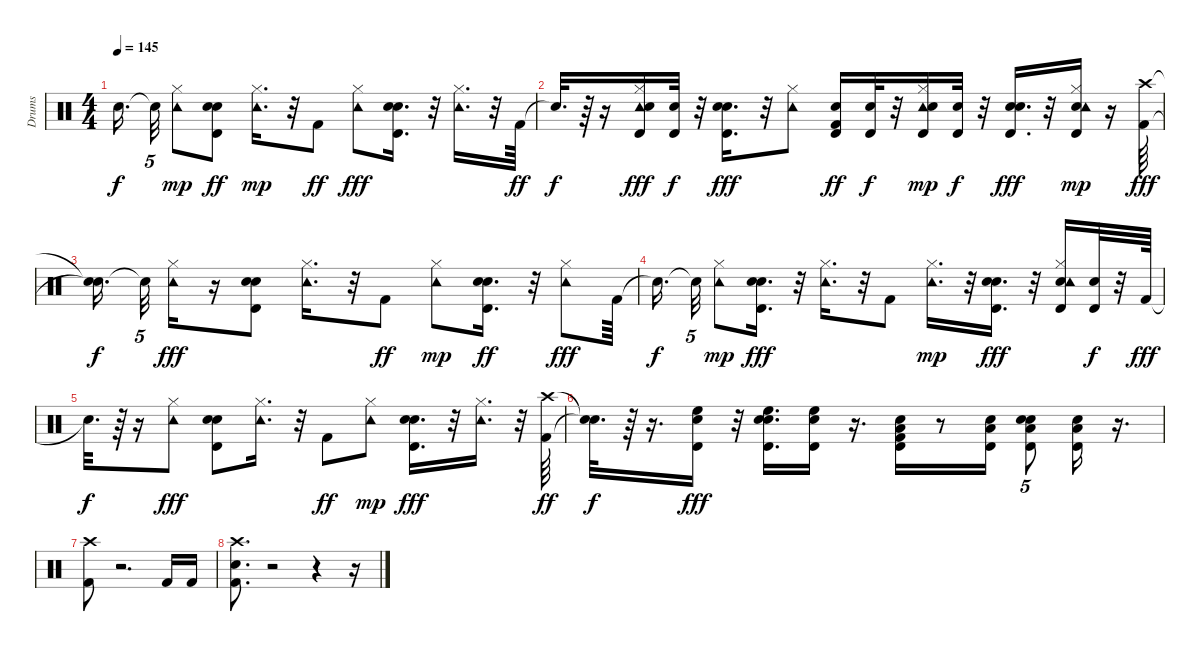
\track ("Drums" "Drums") {instrument percussion}
\staff {score}
\articulation defaults
\ts (4 4)
\tempo 145
\clef neutral
\ks c "Snare (hit)"{t}.16{d dy f} "Snare (hit)"{t}.32{tu (5 4)}
("Hi-Hat (closed)" "Tambourine (hit)").8{dy mp} ("Hand Clap (hit)" "Snare (hit) 2" "Timbale high (hit)").8{dy ff} ("Hi-Hat (closed)" "Tambourine (hit)").16{d dy mp} r.32 "Kick (hit) 2".8{dy ff} ("Tambourine (hit)" "Hi-Hat (closed)").8{dy fff} ("Snare (hit) 2" "Timbale high (hit)" "Hand Clap (hit)").16{d} r.32 ("Tambourine (hit)" "Hi-Hat (closed)").16{d} r.32 "Kick (hit) 2".64{dy ff} |
"Snare (hit)"{t}.32{d dy f} r.64 r.16 ("Tambourine (hit)" "Timbale high (hit)" "Snare (hit) 2" "Hi-Hat (closed)").16{dy fff} ("Snare (hit) 2" "Timbale high (hit)").32{dy f} r.32 ("Snare (hit) 2" "Timbale high (hit)" "Hand Clap (hit)").16{d dy fff} r.32 ("Tambourine (hit)" "Hi-Hat (closed)").8 ("Kick (hit) 2" "Snare (hit) 2" "Timbale high (hit)").16{dy ff} ("Snare (hit) 2" "Timbale high (hit)").32{dy f} r.32 ("Timbale high (hit)" "Hi-Hat (closed)" "Tambourine (hit)" "Snare (hit) 2").16{dy mp} ("Timbale high (hit)" "Snare (hit) 2").32{dy f} r.32 ("Timbale high (hit)" "Snare (hit) 2" "Hand Clap (hit)").16{d dy fff} r.32 ("Timbale high (hit)" "Snare (hit) 2" "Hi-Hat (closed)" "Tambourine (hit)").16{dy mp} r.16 ("Crash high (hit)" "Kick (hit) 2").64{dy fff} |
("Snare (hit)"{t} "Snare (hit)"{t}).16{d dy f} "Snare (hit)"{t}.32{tu (5 4)} ("Tambourine (hit)" "Hi-Hat (closed)").16{dy fff} r.16 ("Hand Clap (hit)" "Snare (hit) 2" "Timbale high (hit)").8 ("Tambourine (hit)" "Hi-Hat (closed)").16{d} r.32 "Kick (hit) 2".8{dy ff} ("Hi-Hat (closed)" "Tambourine (hit)").8{dy mp} ("Hand Clap (hit)" "Timbale high (hit)" "Snare (hit) 2").16{d dy ff} r.32 ("Tambourine (hit)" "Hi-Hat (closed)").8{dy fff} "Kick (hit) 2".64 |
"Snare (hit)"{t}.16{d dy f} "Snare (hit)"{t}.32{tu (5 4)} ("Hi-Hat (closed)" "Tambourine (hit)").8{dy mp} ("Timbale high (hit)" "Snare (hit) 2" "Hand Clap (hit)").16{d dy fff} r.32 ("Tambourine (hit)" "Hi-Hat (closed)").16{d} r.32 "Kick (hit) 2".8 ("Hi-Hat (closed)" "Tambourine (hit)").16{d dy mp} r.32 ("Snare (hit) 2" "Timbale high (hit)" "Hand Clap (hit)").16{d dy fff} r.32 ("Snare (hit) 2" "Timbale high (hit)" "Tambourine (hit)" "Hi-Hat (closed)").16 ("Timbale high (hit)" "Snare (hit) 2").32{dy f} r.32 "Kick (hit) 2".64{dy fff} |
"Snare (hit)"{t}.32{d dy f} r.64 r.16 ("Tambourine (hit)" "Hi-Hat (closed)").8{dy fff} ("Snare (hit) 2" "Timbale high (hit)" "Hand Clap (hit)").8 ("Tambourine (hit)" "Hi-Hat (closed)").16{d} r.32 "Kick (hit) 2".8{dy ff} ("Hi-Hat (closed)" "Tambourine (hit)").8{dy mp} ("Snare (hit) 2" "Timbale high (hit)" "Hand Clap (hit)").16{d dy fff} r.32 ("Tambourine (hit)" "Hi-Hat (closed)").16{d} r.32 ("Kick (hit) 2" "Crash high (hit)").64{dy ff} |
("Snare (hit)"{t} "Snare (hit)"{t}).32{d dy f} r.64 r.16{d} ("Timbale high (hit)" "High Floor Tom (hit)" "Snare (hit) 2").16{dy fff} r.32 ("High Floor Tom (hit)" "Snare (hit) 2" "Hand Clap (hit)" "Timbale high (hit)").16{d} ("High Floor Tom (hit)" "Snare (hit) 2" "Timbale high (hit)").16 r.16{d} ("Kick (hit) 2" "Snare (hit) 2" "Timbale high (hit)" "Low Tom (hit)").16 r.8 ("Snare (hit) 2" "Timbale high (hit)" "Low Tom (hit)").16 ("Timbale high (hit)" "Snare (hit) 2" "Low Tom (hit)" "Hand Clap (hit)").8{tu (5 4)} ("Snare (hit) 2" "Low Tom (hit)" "Timbale high (hit)").16 r.16{d} |
("Crash high (hit)" "Kick (hit) 2").8 r.2{d} "Kick (hit) 2".16 "Kick (hit) 2".16 |
("Crash high (hit)" "Kick (hit) 2" "Snare (hit) 2").8{d} r.2 r.4 r.16
